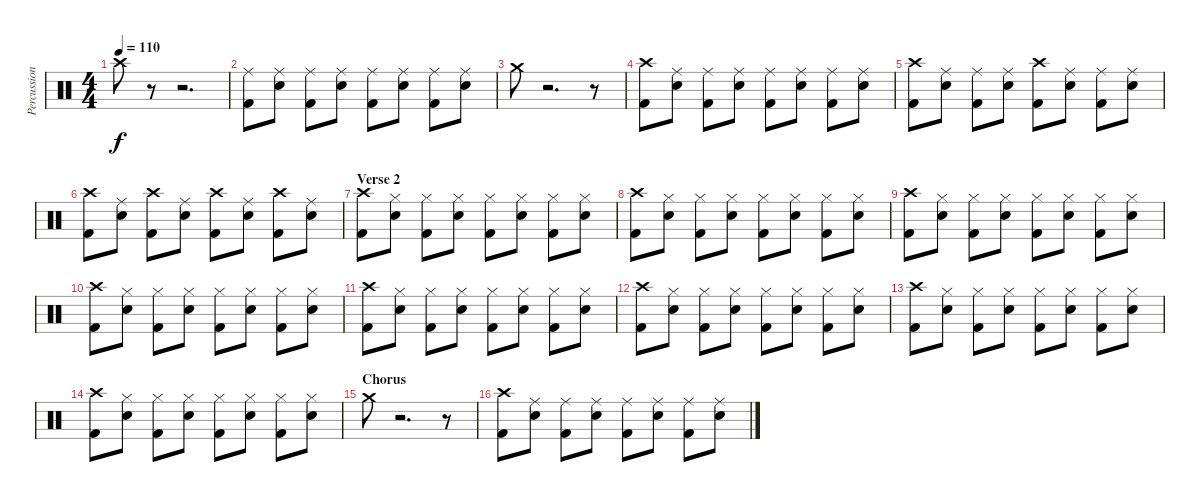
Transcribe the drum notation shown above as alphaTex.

\track ("Percussion" "Percussion") {instrument percussion}
\staff {score}
\articulation defaults
\ts (4 4)
\tempo 110
\clef neutral
\ks c "Crash high (hit)".8{dy f}
r.8 r.2{d} |
("Ride (middle)" "Kick (hit) 2").8 ("Ride (middle)" "Snare (hit) 2").8 ("Ride (middle)" "Kick (hit) 2").8 ("Ride (middle)" "Snare (hit) 2").8 ("Ride (middle)" "Kick (hit) 2").8 ("Ride (middle)" "Snare (hit) 2").8 ("Ride (middle)" "Kick (hit) 2").8 ("Ride (middle)" "Snare (hit) 2").8 |
"Crash medium (hit)".8 r.2{d} r.8 |
("Crash high (hit)" "Kick (hit) 2").8 ("Ride (middle)" "Snare (hit) 2").8 ("Ride (middle)" "Kick (hit) 2").8 ("Ride (middle)" "Snare (hit) 2").8 ("Ride (middle)" "Kick (hit) 2").8 ("Ride (middle)" "Snare (hit) 2").8 ("Ride (middle)" "Kick (hit) 2").8 ("Ride (middle)" "Snare (hit) 2").8 |
("Crash high (hit)" "Kick (hit) 2").8 ("Ride (middle)" "Snare (hit) 2").8 ("Ride (middle)" "Kick (hit) 2").8 ("Ride (middle)" "Snare (hit) 2").8 ("Crash high (hit)" "Kick (hit) 2").8 ("Ride (middle)" "Snare (hit) 2").8 ("Ride (middle)" "Kick (hit) 2").8 ("Ride (middle)" "Snare (hit) 2").8 |
("Crash high (hit)" "Kick (hit) 2").8 ("Ride (middle)" "Snare (hit) 2").8 ("Crash high (hit)" "Kick (hit) 2").8 ("Ride (middle)" "Snare (hit) 2").8 ("Crash high (hit)" "Kick (hit) 2").8 ("Ride (middle)" "Snare (hit) 2").8 ("Crash high (hit)" "Kick (hit) 2").8 ("Ride (middle)" "Snare (hit) 2").8 |
\section ("" "Verse 2")
("Crash high (hit)" "Kick (hit) 2").8 ("Hi-Hat (closed)" "Snare (hit) 2").8 ("Hi-Hat (closed)" "Kick (hit) 2").8 ("Hi-Hat (closed)" "Snare (hit) 2").8 ("Hi-Hat (closed)" "Kick (hit) 2").8 ("Hi-Hat (closed)" "Snare (hit) 2").8 ("Hi-Hat (closed)" "Kick (hit) 2").8 ("Hi-Hat (closed)" "Snare (hit) 2").8 |
("Crash high (hit)" "Kick (hit) 2").8 ("Hi-Hat (closed)" "Snare (hit) 2").8 ("Hi-Hat (closed)" "Kick (hit) 2").8 ("Hi-Hat (closed)" "Snare (hit) 2").8 ("Hi-Hat (closed)" "Kick (hit) 2").8 ("Hi-Hat (closed)" "Snare (hit) 2").8 ("Hi-Hat (closed)" "Kick (hit) 2").8 ("Hi-Hat (closed)" "Snare (hit) 2").8 |
("Crash high (hit)" "Kick (hit) 2").8 ("Hi-Hat (closed)" "Snare (hit) 2").8 ("Hi-Hat (closed)" "Kick (hit) 2").8 ("Hi-Hat (closed)" "Snare (hit) 2").8 ("Hi-Hat (closed)" "Kick (hit) 2").8 ("Hi-Hat (closed)" "Snare (hit) 2").8 ("Hi-Hat (closed)" "Kick (hit) 2").8 ("Hi-Hat (closed)" "Snare (hit) 2").8 |
("Crash high (hit)" "Kick (hit) 2").8 ("Hi-Hat (closed)" "Snare (hit) 2").8 ("Hi-Hat (closed)" "Kick (hit) 2").8 ("Hi-Hat (closed)" "Snare (hit) 2").8 ("Hi-Hat (closed)" "Kick (hit) 2").8 ("Hi-Hat (closed)" "Snare (hit) 2").8 ("Hi-Hat (closed)" "Kick (hit) 2").8 ("Hi-Hat (closed)" "Snare (hit) 2").8 |
("Crash high (hit)" "Kick (hit) 2").8 ("Hi-Hat (closed)" "Snare (hit) 2").8 ("Hi-Hat (closed)" "Kick (hit) 2").8 ("Hi-Hat (closed)" "Snare (hit) 2").8 ("Hi-Hat (closed)" "Kick (hit) 2").8 ("Hi-Hat (closed)" "Snare (hit) 2").8 ("Hi-Hat (closed)" "Kick (hit) 2").8 ("Hi-Hat (closed)" "Snare (hit) 2").8 |
("Crash high (hit)" "Kick (hit) 2").8 ("Hi-Hat (closed)" "Snare (hit) 2").8 ("Hi-Hat (closed)" "Kick (hit) 2").8 ("Hi-Hat (closed)" "Snare (hit) 2").8 ("Hi-Hat (closed)" "Kick (hit) 2").8 ("Hi-Hat (closed)" "Snare (hit) 2").8 ("Hi-Hat (closed)" "Kick (hit) 2").8 ("Hi-Hat (closed)" "Snare (hit) 2").8 |
("Crash high (hit)" "Kick (hit) 2").8 ("Hi-Hat (closed)" "Snare (hit) 2").8 ("Hi-Hat (closed)" "Kick (hit) 2").8 ("Hi-Hat (closed)" "Snare (hit) 2").8 ("Hi-Hat (closed)" "Kick (hit) 2").8 ("Hi-Hat (closed)" "Snare (hit) 2").8 ("Hi-Hat (closed)" "Kick (hit) 2").8 ("Hi-Hat (closed)" "Snare (hit) 2").8 |
("Crash high (hit)" "Kick (hit) 2").8 ("Hi-Hat (closed)" "Snare (hit) 2").8 ("Hi-Hat (closed)" "Kick (hit) 2").8 ("Hi-Hat (closed)" "Snare (hit) 2").8 ("Hi-Hat (closed)" "Kick (hit) 2").8 ("Hi-Hat (closed)" "Snare (hit) 2").8 ("Hi-Hat (closed)" "Kick (hit) 2").8 ("Hi-Hat (closed)" "Snare (hit) 2").8 |
\section ("" "Chorus")
"Crash medium (hit)".8 r.2{d} r.8 |
("Crash high (hit)" "Kick (hit) 2").8 ("Ride (middle)" "Snare (hit) 2").8 ("Ride (middle)" "Kick (hit) 2").8 ("Ride (middle)" "Snare (hit) 2").8 ("Ride (middle)" "Kick (hit) 2").8 ("Ride (middle)" "Snare (hit) 2").8 ("Ride (middle)" "Kick (hit) 2").8 ("Ride (middle)" "Snare (hit) 2").8
